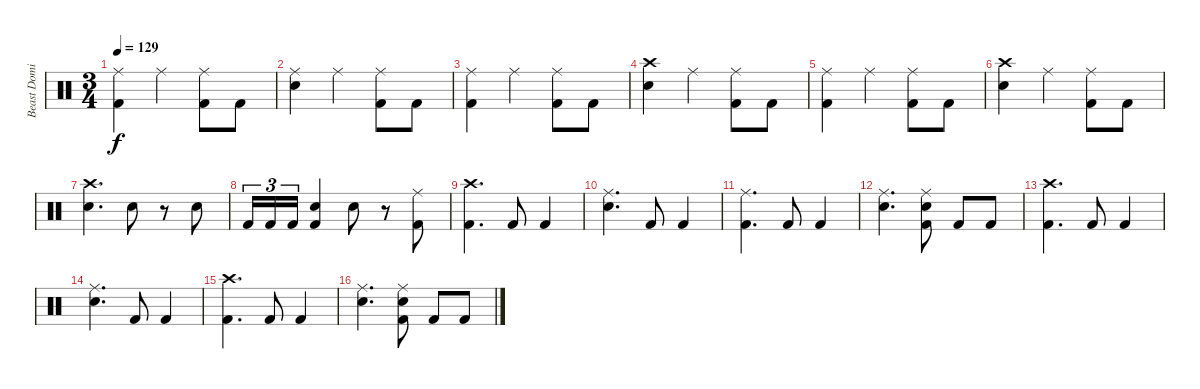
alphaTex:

\track ("Beast Dominator" "Beast Domi") {instrument percussion}
\staff
\articulation defaults
\ts (3 4)
\tempo 129
\clef neutral
\ks c
("Ride (middle)" "Kick (hit) 2").4{dy f} "Ride (middle)".4 ("Ride (middle)" "Kick (hit) 2").8 "Kick (hit) 2".8 |
("Ride (middle)" "Snare (hit) 2").4 "Ride (middle)".4 ("Ride (middle)" "Kick (hit) 2").8 "Kick (hit) 2".8 |
("Ride (middle)" "Kick (hit) 2").4 "Ride (middle)".4 ("Ride (middle)" "Kick (hit) 2").8 "Kick (hit) 2".8 |
("Crash high (hit)" "Snare (hit) 2").4 "Ride (middle)".4 ("Ride (middle)" "Kick (hit) 2").8 "Kick (hit) 2".8 |
("Ride (middle)" "Kick (hit) 2").4 "Ride (middle)".4 ("Ride (middle)" "Kick (hit) 2").8 "Kick (hit) 2".8 |
("Crash high (hit)" "Snare (hit) 2").4 "Ride (middle)".4 ("Ride (middle)" "Kick (hit) 2").8 "Kick (hit) 2".8 |
("Crash high (hit)" "Snare (hit) 2").4{d} "Snare (hit) 2".8 r.8 "Snare (hit) 2".8 |
"Kick (hit) 2".16{tu (3 2)} "Kick (hit) 2".16{tu (3 2)} "Kick (hit) 2".16{tu (3 2)} ("Snare (hit) 2" "Kick (hit) 2").4 "Snare (hit) 2".8 r.8 ("Ride (middle)" "Kick (hit) 2").8 |
("Crash high (hit)" "Kick (hit) 2").4{d} "Kick (hit) 2".8 "Kick (hit) 2".4 |
("Ride (middle)" "Snare (hit) 2").4{d} "Kick (hit) 2".8 "Kick (hit) 2".4 |
("Ride (middle)" "Kick (hit) 2").4{d} "Kick (hit) 2".8 "Kick (hit) 2".4 |
("Ride (middle)" "Snare (hit) 2").4{d} ("Ride (middle)" "Snare (hit) 2" "Kick (hit) 2").8 "Kick (hit) 2".8 "Kick (hit) 2".8 |
("Crash high (hit)" "Kick (hit) 2").4{d} "Kick (hit) 2".8 "Kick (hit) 2".4 |
("Ride (middle)" "Snare (hit) 2").4{d} "Kick (hit) 2".8 "Kick (hit) 2".4 |
("Crash high (hit)" "Kick (hit) 2").4{d} "Kick (hit) 2".8 "Kick (hit) 2".4 |
("Ride (middle)" "Snare (hit) 2").4{d} ("Ride (middle)" "Snare (hit) 2" "Kick (hit) 2").8 "Kick (hit) 2".8 "Kick (hit) 2".8
